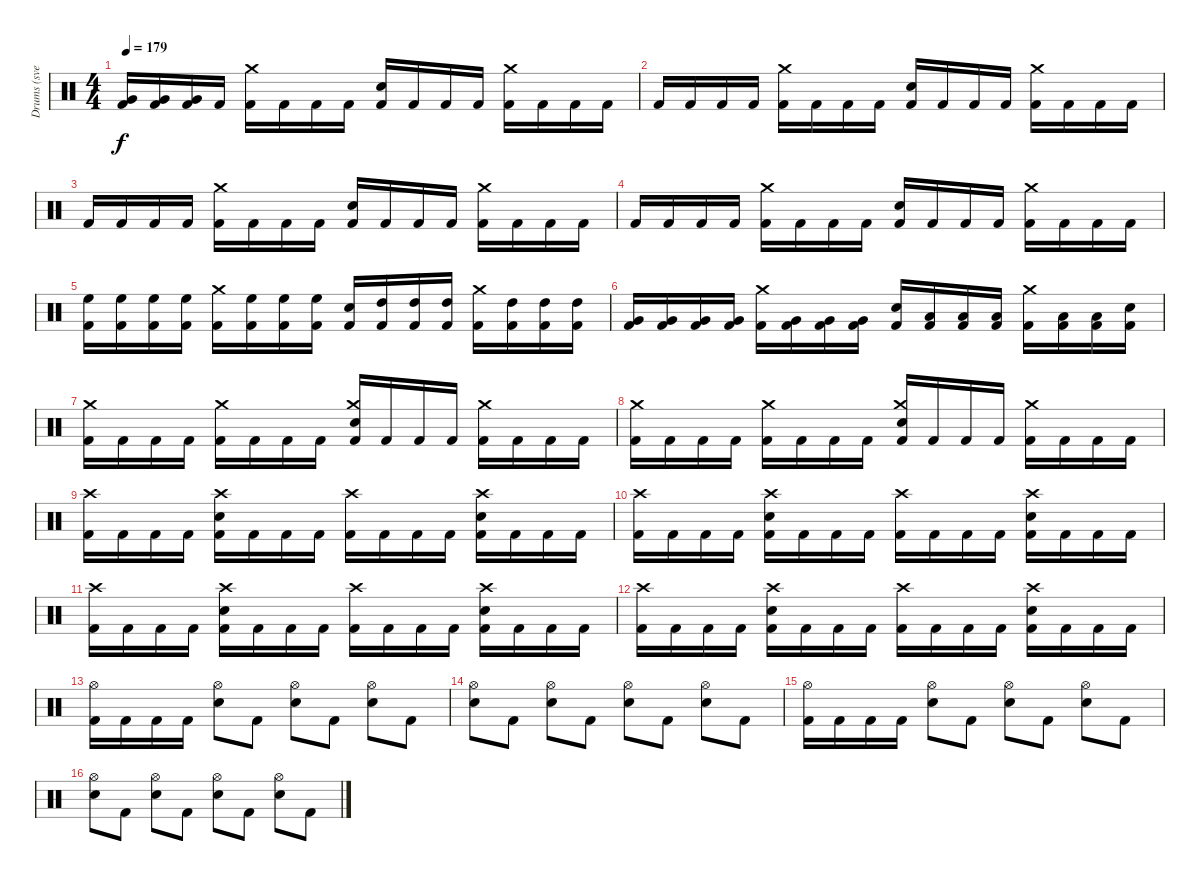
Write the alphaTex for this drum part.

\track ("Drums (svelle)" "Drums (sve") {instrument percussion}
\staff {score}
\articulation defaults
\ts (4 4)
\tempo 179
\clef neutral
\ks c
("Very Low Tom (hit)" "Kick (hit) 2").16{dy f} ("Very Low Tom (hit)" "Kick (hit) 2").16 ("Very Low Tom (hit)" "Kick (hit) 2").16 "Kick (hit) 2".16 ("Crash medium (hit)" "Kick (hit) 2").16 "Kick (hit) 2".16 "Kick (hit) 2".16 "Kick (hit) 2".16 ("Electric Snare (hit)" "Kick (hit) 2").16 "Kick (hit) 2".16 "Kick (hit) 2".16 "Kick (hit) 2".16 ("Crash medium (hit)" "Kick (hit) 2").16 "Kick (hit) 2".16 "Kick (hit) 2".16 "Kick (hit) 2".16 |
"Kick (hit) 2".16 "Kick (hit) 2".16 "Kick (hit) 2".16 "Kick (hit) 2".16 ("Crash medium (hit)" "Kick (hit) 2").16 "Kick (hit) 2".16 "Kick (hit) 2".16 "Kick (hit) 2".16 ("Electric Snare (hit)" "Kick (hit) 2").16 "Kick (hit) 2".16 "Kick (hit) 2".16 "Kick (hit) 2".16 ("Crash medium (hit)" "Kick (hit) 2").16 "Kick (hit) 2".16 "Kick (hit) 2".16 "Kick (hit) 2".16 |
"Kick (hit) 2".16 "Kick (hit) 2".16 "Kick (hit) 2".16 "Kick (hit) 2".16 ("Crash medium (hit)" "Kick (hit) 2").16 "Kick (hit) 2".16 "Kick (hit) 2".16 "Kick (hit) 2".16 ("Electric Snare (hit)" "Kick (hit) 2").16 "Kick (hit) 2".16 "Kick (hit) 2".16 "Kick (hit) 2".16 ("Crash medium (hit)" "Kick (hit) 2").16 "Kick (hit) 2".16 "Kick (hit) 2".16 "Kick (hit) 2".16 |
"Kick (hit) 2".16 "Kick (hit) 2".16 "Kick (hit) 2".16 "Kick (hit) 2".16 ("Crash medium (hit)" "Kick (hit) 2").16 "Kick (hit) 2".16 "Kick (hit) 2".16 "Kick (hit) 2".16 ("Electric Snare (hit)" "Kick (hit) 2").16 "Kick (hit) 2".16 "Kick (hit) 2".16 "Kick (hit) 2".16 ("Crash medium (hit)" "Kick (hit) 2").16 "Kick (hit) 2".16 "Kick (hit) 2".16 "Kick (hit) 2".16 |
("High Floor Tom (hit)" "Kick (hit) 2").16 ("High Floor Tom (hit)" "Kick (hit) 2").16 ("High Floor Tom (hit)" "Kick (hit) 2").16 ("High Floor Tom (hit)" "Kick (hit) 2").16 ("Crash medium (hit)" "Kick (hit) 2").16 ("High Floor Tom (hit)" "Kick (hit) 2").16 ("High Floor Tom (hit)" "Kick (hit) 2").16 ("High Floor Tom (hit)" "Kick (hit) 2").16 ("Electric Snare (hit)" "Kick (hit) 2").16 ("High Tom (hit)" "Kick (hit) 2").16 ("High Tom (hit)" "Kick (hit) 2").16 ("High Tom (hit)" "Kick (hit) 2").16 ("Crash medium (hit)" "Kick (hit) 2").16 ("High Tom (hit)" "Kick (hit) 2").16 ("High Tom (hit)" "Kick (hit) 2").16 ("High Tom (hit)" "Kick (hit) 2").16 |
("Very Low Tom (hit)" "Kick (hit) 2").16 ("Very Low Tom (hit)" "Kick (hit) 2").16 ("Very Low Tom (hit)" "Kick (hit) 2").16 ("Very Low Tom (hit)" "Kick (hit) 2").16 ("Crash medium (hit)" "Kick (hit) 2").16 ("Very Low Tom (hit)" "Kick (hit) 2").16 ("Very Low Tom (hit)" "Kick (hit) 2").16 ("Very Low Tom (hit)" "Kick (hit) 2").16 ("Electric Snare (hit)" "Kick (hit) 2").16 ("Low Floor Tom (hit)" "Kick (hit) 2").16 ("Low Floor Tom (hit)" "Kick (hit) 2").16 ("Low Floor Tom (hit)" "Kick (hit) 2").16 ("Crash medium (hit)" "Kick (hit) 2").16 ("Low Floor Tom (hit)" "Kick (hit) 2").16 ("Low Floor Tom (hit)" "Kick (hit) 2").16 ("Snare (hit)" "Kick (hit) 2").16 |
("Crash medium (hit)" "Kick (hit) 2").16 "Kick (hit) 2".16 "Kick (hit) 2".16 "Kick (hit) 2".16 ("Crash medium (hit)" "Kick (hit) 2").16 "Kick (hit) 2".16 "Kick (hit) 2".16 "Kick (hit) 2".16 ("Crash medium (hit)" "Electric Snare (hit)" "Kick (hit) 2").16 "Kick (hit) 2".16 "Kick (hit) 2".16 "Kick (hit) 2".16 ("Crash medium (hit)" "Kick (hit) 2").16 "Kick (hit) 2".16 "Kick (hit) 2".16 "Kick (hit) 2".16 |
("Crash medium (hit)" "Kick (hit) 2").16 "Kick (hit) 2".16 "Kick (hit) 2".16 "Kick (hit) 2".16 ("Crash medium (hit)" "Kick (hit) 2").16 "Kick (hit) 2".16 "Kick (hit) 2".16 "Kick (hit) 2".16 ("Crash medium (hit)" "Electric Snare (hit)" "Kick (hit) 2").16 "Kick (hit) 2".16 "Kick (hit) 2".16 "Kick (hit) 2".16 ("Crash medium (hit)" "Kick (hit) 2").16 "Kick (hit) 2".16 "Kick (hit) 2".16 "Kick (hit) 2".16 |
("Crash high (hit)" "Kick (hit) 2").16 "Kick (hit) 2".16 "Kick (hit) 2".16 "Kick (hit) 2".16 ("Crash high (hit)" "Electric Snare (hit)" "Kick (hit) 2").16 "Kick (hit) 2".16 "Kick (hit) 2".16 "Kick (hit) 2".16 ("Crash high (hit)" "Kick (hit) 2").16 "Kick (hit) 2".16 "Kick (hit) 2".16 "Kick (hit) 2".16 ("Crash high (hit)" "Electric Snare (hit)" "Kick (hit) 2").16 "Kick (hit) 2".16 "Kick (hit) 2".16 "Kick (hit) 2".16 |
("Crash high (hit)" "Kick (hit) 2").16 "Kick (hit) 2".16 "Kick (hit) 2".16 "Kick (hit) 2".16 ("Crash high (hit)" "Electric Snare (hit)" "Kick (hit) 2").16 "Kick (hit) 2".16 "Kick (hit) 2".16 "Kick (hit) 2".16 ("Crash high (hit)" "Kick (hit) 2").16 "Kick (hit) 2".16 "Kick (hit) 2".16 "Kick (hit) 2".16 ("Crash high (hit)" "Electric Snare (hit)" "Kick (hit) 2").16 "Kick (hit) 2".16 "Kick (hit) 2".16 "Kick (hit) 2".16 |
("Crash high (hit)" "Kick (hit) 2").16 "Kick (hit) 2".16 "Kick (hit) 2".16 "Kick (hit) 2".16 ("Crash high (hit)" "Electric Snare (hit)" "Kick (hit) 2").16 "Kick (hit) 2".16 "Kick (hit) 2".16 "Kick (hit) 2".16 ("Crash high (hit)" "Kick (hit) 2").16 "Kick (hit) 2".16 "Kick (hit) 2".16 "Kick (hit) 2".16 ("Crash high (hit)" "Electric Snare (hit)" "Kick (hit) 2").16 "Kick (hit) 2".16 "Kick (hit) 2".16 "Kick (hit) 2".16 |
("Crash high (hit)" "Kick (hit) 2").16 "Kick (hit) 2".16 "Kick (hit) 2".16 "Kick (hit) 2".16 ("Crash high (hit)" "Electric Snare (hit)" "Kick (hit) 2").16 "Kick (hit) 2".16 "Kick (hit) 2".16 "Kick (hit) 2".16 ("Crash high (hit)" "Kick (hit) 2").16 "Kick (hit) 2".16 "Kick (hit) 2".16 "Kick (hit) 2".16 ("Crash high (hit)" "Electric Snare (hit)" "Kick (hit) 2").16 "Kick (hit) 2".16 "Kick (hit) 2".16 "Kick (hit) 2".16 |
("Hi-Hat (open)" "Kick (hit) 2").16 "Kick (hit) 2".16 "Kick (hit) 2".16 "Kick (hit) 2".16 ("Hi-Hat (open)" "Electric Snare (hit)").8 "Kick (hit) 2".8 ("Hi-Hat (open)" "Electric Snare (hit)").8 "Kick (hit) 2".8 ("Hi-Hat (open)" "Electric Snare (hit)").8 "Kick (hit) 2".8 |
("Hi-Hat (open)" "Electric Snare (hit)").8 "Kick (hit) 2".8 ("Hi-Hat (open)" "Electric Snare (hit)").8 "Kick (hit) 2".8 ("Hi-Hat (open)" "Electric Snare (hit)").8 "Kick (hit) 2".8 ("Hi-Hat (open)" "Electric Snare (hit)").8 "Kick (hit) 2".8 |
("Hi-Hat (open)" "Kick (hit) 2").16 "Kick (hit) 2".16 "Kick (hit) 2".16 "Kick (hit) 2".16 ("Hi-Hat (open)" "Electric Snare (hit)").8 "Kick (hit) 2".8 ("Hi-Hat (open)" "Electric Snare (hit)").8 "Kick (hit) 2".8 ("Hi-Hat (open)" "Electric Snare (hit)").8 "Kick (hit) 2".8 |
("Hi-Hat (open)" "Electric Snare (hit)").8 "Kick (hit) 2".8 ("Hi-Hat (open)" "Electric Snare (hit)").8 "Kick (hit) 2".8 ("Hi-Hat (open)" "Electric Snare (hit)").8 "Kick (hit) 2".8 ("Hi-Hat (open)" "Electric Snare (hit)").8 "Kick (hit) 2".8
